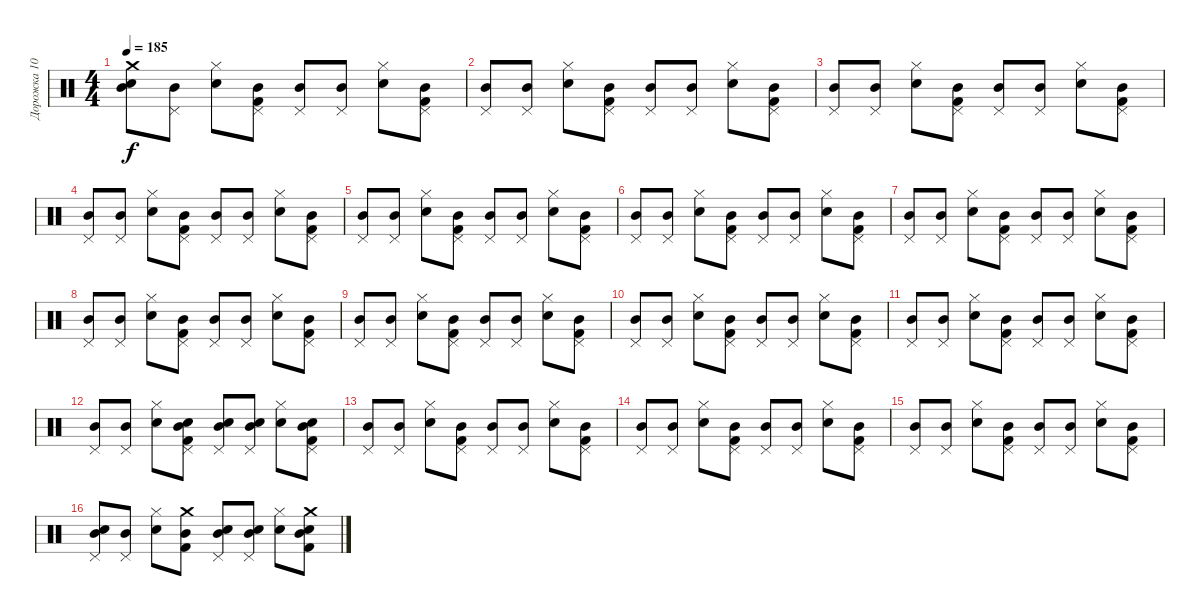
\track ("Дорожка 10" "Дорожка 10") {instrument percussion}
\staff {score}
\articulation defaults
\ts (4 4)
\tempo 185
\clef neutral
\ks c
("Snare (hit) 2" "Mid Tom (hit)" "Crash medium (hit)").8{dy f} ("Mid Tom (hit)" "Pedal Hi-Hat (hit)").8 ("Snare (hit) 2" "Hi-Hat (closed)").8 ("Kick (hit) 2" "Mid Tom (hit)" "Pedal Hi-Hat (hit)").8 ("Mid Tom (hit)" "Pedal Hi-Hat (hit)").8 ("Mid Tom (hit)" "Pedal Hi-Hat (hit)").8 ("Snare (hit) 2" "Hi-Hat (closed)").8 ("Kick (hit) 2" "Mid Tom (hit)" "Pedal Hi-Hat (hit)").8 |
("Mid Tom (hit)" "Pedal Hi-Hat (hit)").8 ("Mid Tom (hit)" "Pedal Hi-Hat (hit)").8 ("Snare (hit) 2" "Hi-Hat (closed)").8 ("Kick (hit) 2" "Mid Tom (hit)" "Pedal Hi-Hat (hit)").8 ("Mid Tom (hit)" "Pedal Hi-Hat (hit)").8 ("Mid Tom (hit)" "Pedal Hi-Hat (hit)").8 ("Snare (hit) 2" "Hi-Hat (closed)").8 ("Kick (hit) 2" "Mid Tom (hit)" "Pedal Hi-Hat (hit)").8 |
("Mid Tom (hit)" "Pedal Hi-Hat (hit)").8 ("Mid Tom (hit)" "Pedal Hi-Hat (hit)").8 ("Snare (hit) 2" "Hi-Hat (closed)").8 ("Kick (hit) 2" "Mid Tom (hit)" "Pedal Hi-Hat (hit)").8 ("Mid Tom (hit)" "Pedal Hi-Hat (hit)").8 ("Mid Tom (hit)" "Pedal Hi-Hat (hit)").8 ("Snare (hit) 2" "Hi-Hat (closed)").8 ("Kick (hit) 2" "Mid Tom (hit)" "Pedal Hi-Hat (hit)").8 |
("Mid Tom (hit)" "Pedal Hi-Hat (hit)").8 ("Mid Tom (hit)" "Pedal Hi-Hat (hit)").8 ("Snare (hit) 2" "Hi-Hat (closed)").8 ("Kick (hit) 2" "Mid Tom (hit)" "Pedal Hi-Hat (hit)").8 ("Mid Tom (hit)" "Pedal Hi-Hat (hit)").8 ("Mid Tom (hit)" "Pedal Hi-Hat (hit)").8 ("Snare (hit) 2" "Hi-Hat (closed)").8 ("Kick (hit) 2" "Mid Tom (hit)" "Pedal Hi-Hat (hit)").8 |
("Mid Tom (hit)" "Pedal Hi-Hat (hit)").8 ("Mid Tom (hit)" "Pedal Hi-Hat (hit)").8 ("Snare (hit) 2" "Hi-Hat (closed)").8 ("Kick (hit) 2" "Mid Tom (hit)" "Pedal Hi-Hat (hit)").8 ("Mid Tom (hit)" "Pedal Hi-Hat (hit)").8 ("Mid Tom (hit)" "Pedal Hi-Hat (hit)").8 ("Snare (hit) 2" "Hi-Hat (closed)").8 ("Kick (hit) 2" "Mid Tom (hit)" "Pedal Hi-Hat (hit)").8 |
("Mid Tom (hit)" "Pedal Hi-Hat (hit)").8 ("Mid Tom (hit)" "Pedal Hi-Hat (hit)").8 ("Snare (hit) 2" "Hi-Hat (closed)").8 ("Kick (hit) 2" "Mid Tom (hit)" "Pedal Hi-Hat (hit)").8 ("Mid Tom (hit)" "Pedal Hi-Hat (hit)").8 ("Mid Tom (hit)" "Pedal Hi-Hat (hit)").8 ("Snare (hit) 2" "Hi-Hat (closed)").8 ("Kick (hit) 2" "Mid Tom (hit)" "Pedal Hi-Hat (hit)").8 |
("Mid Tom (hit)" "Pedal Hi-Hat (hit)").8 ("Mid Tom (hit)" "Pedal Hi-Hat (hit)").8 ("Snare (hit) 2" "Hi-Hat (closed)").8 ("Kick (hit) 2" "Mid Tom (hit)" "Pedal Hi-Hat (hit)").8 ("Mid Tom (hit)" "Pedal Hi-Hat (hit)").8 ("Mid Tom (hit)" "Pedal Hi-Hat (hit)").8 ("Snare (hit) 2" "Hi-Hat (closed)").8 ("Kick (hit) 2" "Mid Tom (hit)" "Pedal Hi-Hat (hit)").8 |
("Mid Tom (hit)" "Pedal Hi-Hat (hit)").8 ("Mid Tom (hit)" "Pedal Hi-Hat (hit)").8 ("Snare (hit) 2" "Hi-Hat (closed)").8 ("Kick (hit) 2" "Mid Tom (hit)" "Pedal Hi-Hat (hit)").8 ("Mid Tom (hit)" "Pedal Hi-Hat (hit)").8 ("Mid Tom (hit)" "Pedal Hi-Hat (hit)").8 ("Snare (hit) 2" "Hi-Hat (closed)").8 ("Kick (hit) 2" "Mid Tom (hit)" "Pedal Hi-Hat (hit)").8 |
("Mid Tom (hit)" "Pedal Hi-Hat (hit)").8 ("Mid Tom (hit)" "Pedal Hi-Hat (hit)").8 ("Snare (hit) 2" "Hi-Hat (closed)").8 ("Kick (hit) 2" "Mid Tom (hit)" "Pedal Hi-Hat (hit)").8 ("Mid Tom (hit)" "Pedal Hi-Hat (hit)").8 ("Mid Tom (hit)" "Pedal Hi-Hat (hit)").8 ("Snare (hit) 2" "Hi-Hat (closed)").8 ("Kick (hit) 2" "Mid Tom (hit)" "Pedal Hi-Hat (hit)").8 |
("Mid Tom (hit)" "Pedal Hi-Hat (hit)").8 ("Mid Tom (hit)" "Pedal Hi-Hat (hit)").8 ("Snare (hit) 2" "Hi-Hat (closed)").8 ("Kick (hit) 2" "Mid Tom (hit)" "Pedal Hi-Hat (hit)").8 ("Mid Tom (hit)" "Pedal Hi-Hat (hit)").8 ("Mid Tom (hit)" "Pedal Hi-Hat (hit)").8 ("Snare (hit) 2" "Hi-Hat (closed)").8 ("Kick (hit) 2" "Mid Tom (hit)" "Pedal Hi-Hat (hit)").8 |
("Mid Tom (hit)" "Pedal Hi-Hat (hit)").8 ("Mid Tom (hit)" "Pedal Hi-Hat (hit)").8 ("Snare (hit) 2" "Hi-Hat (closed)").8 ("Kick (hit) 2" "Mid Tom (hit)" "Pedal Hi-Hat (hit)").8 ("Mid Tom (hit)" "Pedal Hi-Hat (hit)").8 ("Mid Tom (hit)" "Pedal Hi-Hat (hit)").8 ("Snare (hit) 2" "Hi-Hat (closed)").8 ("Kick (hit) 2" "Mid Tom (hit)" "Pedal Hi-Hat (hit)").8 |
("Mid Tom (hit)" "Pedal Hi-Hat (hit)").8 ("Mid Tom (hit)" "Pedal Hi-Hat (hit)").8 ("Snare (hit) 2" "Hi-Hat (closed)").8 ("Kick (hit) 2" "Snare (hit) 2" "Mid Tom (hit)" "Pedal Hi-Hat (hit)").8 ("Snare (hit) 2" "Mid Tom (hit)" "Pedal Hi-Hat (hit)").8 ("Snare (hit) 2" "Mid Tom (hit)" "Pedal Hi-Hat (hit)").8 ("Snare (hit) 2" "Hi-Hat (closed)").8 ("Kick (hit) 2" "Snare (hit) 2" "Mid Tom (hit)" "Pedal Hi-Hat (hit)").8 |
("Mid Tom (hit)" "Pedal Hi-Hat (hit)").8 ("Mid Tom (hit)" "Pedal Hi-Hat (hit)").8 ("Snare (hit) 2" "Hi-Hat (closed)").8 ("Kick (hit) 2" "Mid Tom (hit)" "Pedal Hi-Hat (hit)").8 ("Mid Tom (hit)" "Pedal Hi-Hat (hit)").8 ("Mid Tom (hit)" "Pedal Hi-Hat (hit)").8 ("Snare (hit) 2" "Hi-Hat (closed)").8 ("Kick (hit) 2" "Mid Tom (hit)" "Pedal Hi-Hat (hit)").8 |
("Mid Tom (hit)" "Pedal Hi-Hat (hit)").8 ("Mid Tom (hit)" "Pedal Hi-Hat (hit)").8 ("Snare (hit) 2" "Hi-Hat (closed)").8 ("Kick (hit) 2" "Mid Tom (hit)" "Pedal Hi-Hat (hit)").8 ("Mid Tom (hit)" "Pedal Hi-Hat (hit)").8 ("Mid Tom (hit)" "Pedal Hi-Hat (hit)").8 ("Snare (hit) 2" "Hi-Hat (closed)").8 ("Kick (hit) 2" "Mid Tom (hit)" "Pedal Hi-Hat (hit)").8 |
("Mid Tom (hit)" "Pedal Hi-Hat (hit)").8 ("Mid Tom (hit)" "Pedal Hi-Hat (hit)").8 ("Snare (hit) 2" "Hi-Hat (closed)").8 ("Kick (hit) 2" "Mid Tom (hit)" "Pedal Hi-Hat (hit)").8 ("Mid Tom (hit)" "Pedal Hi-Hat (hit)").8 ("Mid Tom (hit)" "Pedal Hi-Hat (hit)").8 ("Snare (hit) 2" "Hi-Hat (closed)").8 ("Kick (hit) 2" "Mid Tom (hit)" "Pedal Hi-Hat (hit)").8 |
("Snare (hit) 2" "Mid Tom (hit)" "Pedal Hi-Hat (hit)").8 ("Mid Tom (hit)" "Pedal Hi-Hat (hit)").8 ("Snare (hit) 2" "Hi-Hat (closed)").8 ("Kick (hit) 2" "Mid Tom (hit)" "Crash medium (hit)").8 ("Snare (hit) 2" "Mid Tom (hit)" "Pedal Hi-Hat (hit)").8 ("Snare (hit) 2" "Mid Tom (hit)" "Pedal Hi-Hat (hit)").8 ("Snare (hit) 2" "Hi-Hat (closed)").8 ("Kick (hit) 2" "Snare (hit) 2" "Mid Tom (hit)" "Crash medium (hit)").8
